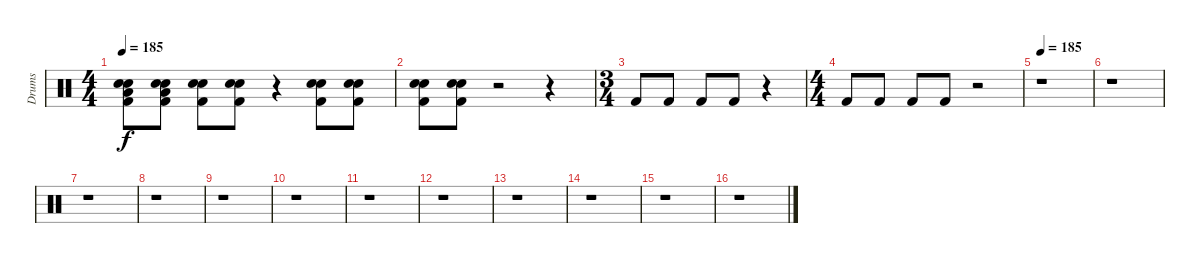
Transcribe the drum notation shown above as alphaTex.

\track ("Drums" "Drums") {instrument percussion}
\staff {score}
\articulation defaults
\ts (4 4)
\tempo 185
\clef neutral
\ks c
("Snare (hit) 2" "Low Tom (hit)" "Kick (hit) 2" "Electric Snare (hit)").8{dy f} ("Snare (hit) 2" "Low Tom (hit)" "Kick (hit) 2" "Electric Snare (hit)").8 ("Snare (hit) 2" "Kick (hit) 2" "Electric Snare (hit)").8 ("Snare (hit) 2" "Kick (hit) 2" "Electric Snare (hit)").8 r.4 ("Snare (hit) 2" "Kick (hit) 2" "Electric Snare (hit)").8 ("Snare (hit) 2" "Kick (hit) 2" "Electric Snare (hit)").8 |
("Snare (hit) 2" "Kick (hit) 2" "Electric Snare (hit)").8 ("Snare (hit) 2" "Kick (hit) 2" "Electric Snare (hit)").8 r.2 r.4 |
\ts (3 4)
"Kick (hit) 2".8 "Kick (hit) 2".8 "Kick (hit) 2".8 "Kick (hit) 2".8 r.4 |
\ts (4 4)
"Kick (hit) 2".8 "Kick (hit) 2".8 "Kick (hit) 2".8 "Kick (hit) 2".8 r.2 |
\tempo 185
r.1 |
r.1 |
r.1 |
r.1 |
r.1 |
r.1 |
r.1 |
r.1 |
r.1 |
r.1 |
r.1 |
r.1
